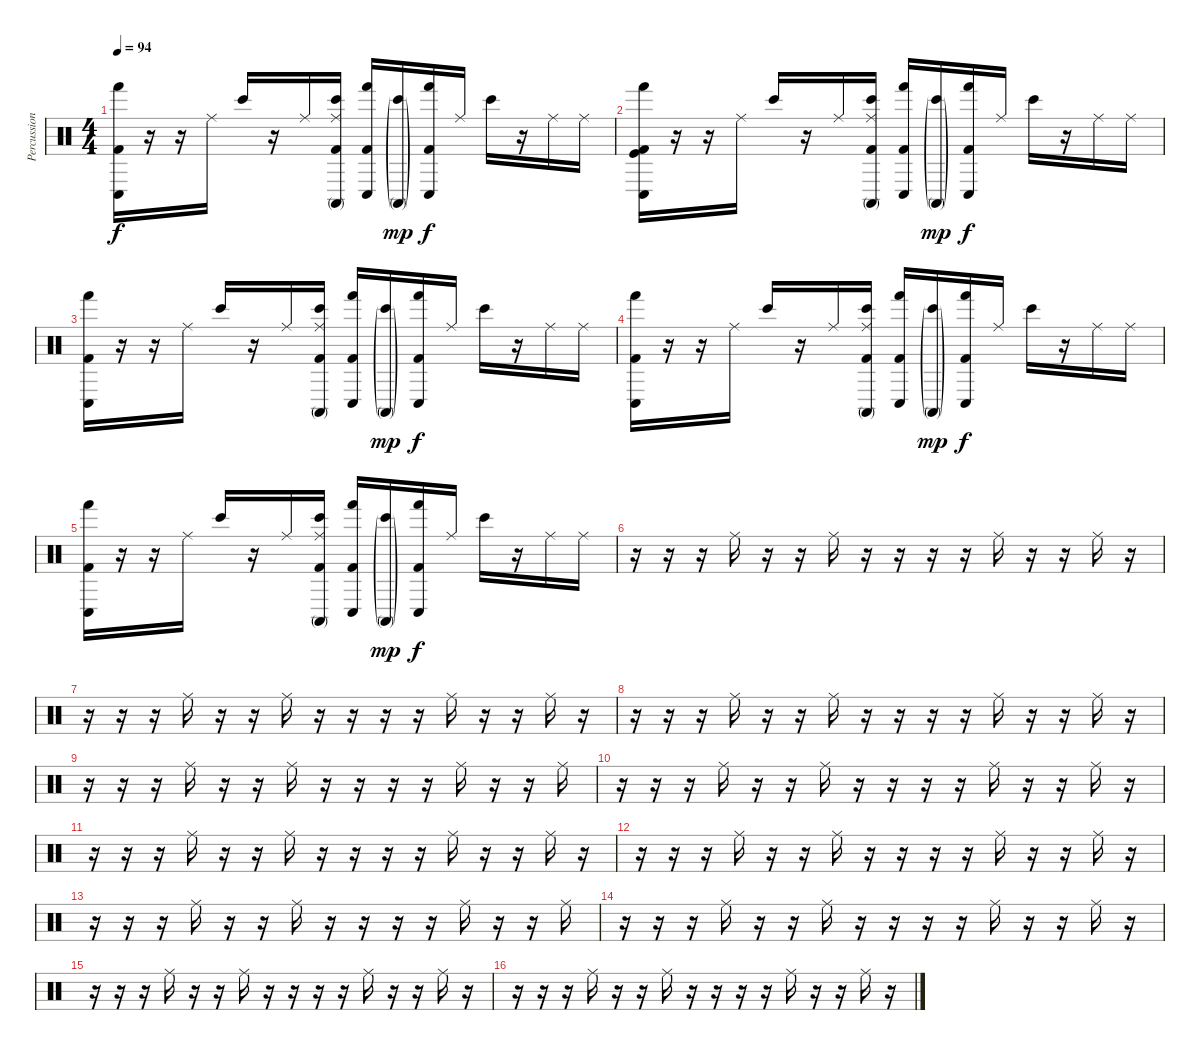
\track ("Percussion" "Percussion") {instrument percussion}
\staff {score}
\articulation defaults
\ts (4 4)
\tempo 94
\clef neutral
\ks c
("Hand (hit)" "Conga low (hit)" "Kick (hit) 2").16{dy f} r.16 r.16 "Ride (middle)".16 "Bongo High (hit)".16 r.16 "Ride (middle)".16 ("Bongo High (hit)" "Conga high (mute)" "Ride (middle)" "Kick (hit) 2").16 ("Hand (hit)" "Conga low (hit)" "Kick (hit) 2").16 ("Bongo High (hit)"{g} "Conga high (mute)"{g}).16{dy mp} ("Hand (hit)" "Conga low (hit)" "Kick (hit) 2").16{dy f} "Ride (middle)".16 "Bongo High (hit)".16 r.16 "Ride (middle)".16 "Ride (middle)".16 |
("Hand (hit)" "Conga low (hit)" "Kick (hit)" "Kick (hit) 2").16 r.16 r.16 "Ride (middle)".16 "Bongo High (hit)".16 r.16 "Ride (middle)".16 ("Bongo High (hit)" "Conga high (mute)" "Ride (middle)" "Kick (hit) 2").16 ("Hand (hit)" "Conga low (hit)" "Kick (hit) 2").16 ("Bongo High (hit)"{g} "Conga high (mute)"{g}).16{dy mp} ("Hand (hit)" "Conga low (hit)" "Kick (hit) 2").16{dy f} "Ride (middle)".16 "Bongo High (hit)".16 r.16 "Ride (middle)".16 "Ride (middle)".16 |
("Hand (hit)" "Conga low (hit)" "Kick (hit) 2").16 r.16 r.16 "Ride (middle)".16 "Bongo High (hit)".16 r.16 "Ride (middle)".16 ("Bongo High (hit)" "Conga high (mute)" "Ride (middle)" "Kick (hit) 2").16 ("Hand (hit)" "Conga low (hit)" "Kick (hit) 2").16 ("Bongo High (hit)"{g} "Conga high (mute)"{g}).16{dy mp} ("Hand (hit)" "Conga low (hit)" "Kick (hit) 2").16{dy f} "Ride (middle)".16 "Bongo High (hit)".16 r.16 "Ride (middle)".16 "Ride (middle)".16 |
("Hand (hit)" "Conga low (hit)" "Kick (hit) 2").16 r.16 r.16 "Ride (middle)".16 "Bongo High (hit)".16 r.16 "Ride (middle)".16 ("Bongo High (hit)" "Conga high (mute)" "Ride (middle)" "Kick (hit) 2").16 ("Hand (hit)" "Conga low (hit)" "Kick (hit) 2").16 ("Bongo High (hit)"{g} "Conga high (mute)"{g}).16{dy mp} ("Hand (hit)" "Conga low (hit)" "Kick (hit) 2").16{dy f} "Ride (middle)".16 "Bongo High (hit)".16 r.16 "Ride (middle)".16 "Ride (middle)".16 |
("Hand (hit)" "Conga low (hit)" "Kick (hit) 2").16 r.16 r.16 "Ride (middle)".16 "Bongo High (hit)".16 r.16 "Ride (middle)".16 ("Bongo High (hit)" "Conga high (mute)" "Ride (middle)" "Kick (hit) 2").16 ("Hand (hit)" "Conga low (hit)" "Kick (hit) 2").16 ("Bongo High (hit)"{g} "Conga high (mute)"{g}).16{dy mp} ("Hand (hit)" "Conga low (hit)" "Kick (hit) 2").16{dy f} "Ride (middle)".16 "Bongo High (hit)".16 r.16 "Ride (middle)".16 "Ride (middle)".16 |
r.16 r.16 r.16 "Ride (middle)".16 r.16 r.16 "Ride (middle)".16 r.16 r.16 r.16 r.16 "Ride (middle)".16 r.16 r.16 "Ride (middle)".16 r.16 |
r.16 r.16 r.16 "Ride (middle)".16 r.16 r.16 "Ride (middle)".16 r.16 r.16 r.16 r.16 "Ride (middle)".16 r.16 r.16 "Ride (middle)".16 r.16 |
r.16 r.16 r.16 "Ride (middle)".16 r.16 r.16 "Ride (middle)".16 r.16 r.16 r.16 r.16 "Ride (middle)".16 r.16 r.16 "Ride (middle)".16 r.16 |
r.16 r.16 r.16 "Ride (middle)".16 r.16 r.16 "Ride (middle)".16 r.16 r.16 r.16 r.16 "Ride (middle)".16 r.16 r.16 "Ride (middle)".16 |
r.16 r.16 r.16 "Ride (middle)".16 r.16 r.16 "Ride (middle)".16 r.16 r.16 r.16 r.16 "Ride (middle)".16 r.16 r.16 "Ride (middle)".16 r.16 |
r.16 r.16 r.16 "Ride (middle)".16 r.16 r.16 "Ride (middle)".16 r.16 r.16 r.16 r.16 "Ride (middle)".16 r.16 r.16 "Ride (middle)".16 r.16 |
r.16 r.16 r.16 "Ride (middle)".16 r.16 r.16 "Ride (middle)".16 r.16 r.16 r.16 r.16 "Ride (middle)".16 r.16 r.16 "Ride (middle)".16 r.16 |
r.16 r.16 r.16 "Ride (middle)".16 r.16 r.16 "Ride (middle)".16 r.16 r.16 r.16 r.16 "Ride (middle)".16 r.16 r.16 "Ride (middle)".16 |
r.16 r.16 r.16 "Ride (middle)".16 r.16 r.16 "Ride (middle)".16 r.16 r.16 r.16 r.16 "Ride (middle)".16 r.16 r.16 "Ride (middle)".16 r.16 |
r.16 r.16 r.16 "Ride (middle)".16 r.16 r.16 "Ride (middle)".16 r.16 r.16 r.16 r.16 "Ride (middle)".16 r.16 r.16 "Ride (middle)".16 r.16 |
r.16 r.16 r.16 "Ride (middle)".16 r.16 r.16 "Ride (middle)".16 r.16 r.16 r.16 r.16 "Ride (middle)".16 r.16 r.16 "Ride (middle)".16 r.16
